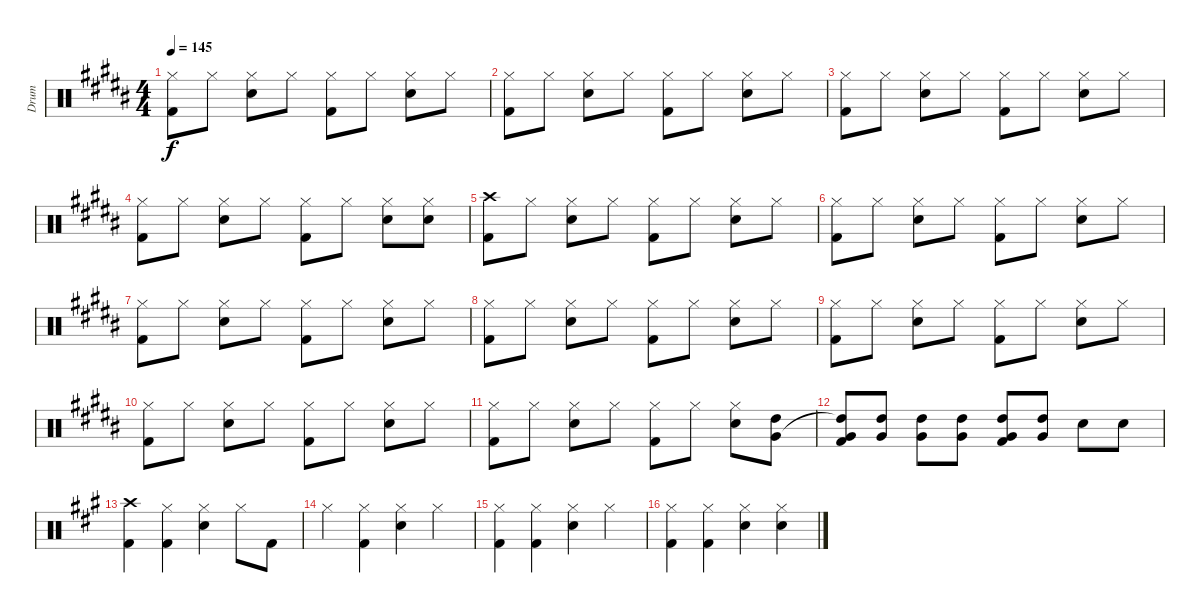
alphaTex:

\track ("Drum" "Drum") {instrument percussion}
\staff {score}
\articulation defaults
\ts (4 4)
\tempo 145
\clef neutral
\ks b
("Hi-Hat (closed)" "Kick (hit) 2").8{dy f} "Hi-Hat (closed)".8 ("Hi-Hat (closed)" "Electric Snare (hit)").8 "Hi-Hat (closed)".8 ("Hi-Hat (closed)" "Kick (hit) 2").8 "Hi-Hat (closed)".8 ("Hi-Hat (closed)" "Electric Snare (hit)").8 "Hi-Hat (closed)".8 |
("Hi-Hat (closed)" "Kick (hit) 2").8 "Hi-Hat (closed)".8 ("Hi-Hat (closed)" "Electric Snare (hit)").8 "Hi-Hat (closed)".8 ("Hi-Hat (closed)" "Kick (hit) 2").8 "Hi-Hat (closed)".8 ("Hi-Hat (closed)" "Electric Snare (hit)").8 "Hi-Hat (closed)".8 |
("Hi-Hat (closed)" "Kick (hit) 2").8 "Hi-Hat (closed)".8 ("Hi-Hat (closed)" "Electric Snare (hit)").8 "Hi-Hat (closed)".8 ("Hi-Hat (closed)" "Kick (hit) 2").8 "Hi-Hat (closed)".8 ("Hi-Hat (closed)" "Electric Snare (hit)").8 "Hi-Hat (closed)".8 |
("Hi-Hat (closed)" "Kick (hit) 2").8 "Hi-Hat (closed)".8 ("Hi-Hat (closed)" "Electric Snare (hit)").8 "Hi-Hat (closed)".8 ("Hi-Hat (closed)" "Kick (hit) 2").8 "Hi-Hat (closed)".8 ("Hi-Hat (closed)" "Electric Snare (hit)").8 ("Hi-Hat (closed)" "Electric Snare (hit)").8 |
("Kick (hit) 2" "Crash high (hit)").8 "Hi-Hat (closed)".8 ("Hi-Hat (closed)" "Electric Snare (hit)").8 "Hi-Hat (closed)".8 ("Hi-Hat (closed)" "Kick (hit) 2").8 "Hi-Hat (closed)".8 ("Hi-Hat (closed)" "Electric Snare (hit)").8 "Hi-Hat (closed)".8 |
("Hi-Hat (closed)" "Kick (hit) 2").8 "Hi-Hat (closed)".8 ("Hi-Hat (closed)" "Electric Snare (hit)").8 "Hi-Hat (closed)".8 ("Hi-Hat (closed)" "Kick (hit) 2").8 "Hi-Hat (closed)".8 ("Hi-Hat (closed)" "Electric Snare (hit)").8 "Hi-Hat (closed)".8 |
("Hi-Hat (closed)" "Kick (hit) 2").8 "Hi-Hat (closed)".8 ("Hi-Hat (closed)" "Electric Snare (hit)").8 "Hi-Hat (closed)".8 ("Hi-Hat (closed)" "Kick (hit) 2").8 "Hi-Hat (closed)".8 ("Hi-Hat (closed)" "Electric Snare (hit)").8 "Hi-Hat (closed)".8 |
("Hi-Hat (closed)" "Kick (hit) 2").8 "Hi-Hat (closed)".8 ("Hi-Hat (closed)" "Electric Snare (hit)").8 "Hi-Hat (closed)".8 ("Hi-Hat (closed)" "Kick (hit) 2").8 "Hi-Hat (closed)".8 ("Hi-Hat (closed)" "Electric Snare (hit)").8 "Hi-Hat (closed)".8 |
("Hi-Hat (closed)" "Kick (hit) 2").8 "Hi-Hat (closed)".8 ("Hi-Hat (closed)" "Electric Snare (hit)").8 "Hi-Hat (closed)".8 ("Hi-Hat (closed)" "Kick (hit) 2").8 "Hi-Hat (closed)".8 ("Hi-Hat (closed)" "Electric Snare (hit)").8 "Hi-Hat (closed)".8 |
("Hi-Hat (closed)" "Kick (hit) 2").8 "Hi-Hat (closed)".8 ("Hi-Hat (closed)" "Electric Snare (hit)").8 "Hi-Hat (closed)".8 ("Hi-Hat (closed)" "Kick (hit) 2").8 "Hi-Hat (closed)".8 ("Hi-Hat (closed)" "Electric Snare (hit)").8 "Hi-Hat (closed)".8 |
("Hi-Hat (closed)" "Kick (hit) 2").8 "Hi-Hat (closed)".8 ("Hi-Hat (closed)" "Electric Snare (hit)").8 "Hi-Hat (closed)".8 ("Hi-Hat (closed)" "Kick (hit) 2").8 "Hi-Hat (closed)".8 ("Hi-Hat (closed)" "Electric Snare (hit)").8 ("High Tom (hit)" "Very Low Tom (hit)").8 |
("Kick (hit) 2" "High Tom (hit)"{t} "Very Low Tom (hit)").8 ("High Tom (hit)" "Very Low Tom (hit)").8 ("High Tom (hit)" "Very Low Tom (hit)").8 ("High Tom (hit)" "Very Low Tom (hit)").8 ("Kick (hit) 2" "High Tom (hit)" "Very Low Tom (hit)").8 ("High Tom (hit)" "Very Low Tom (hit)").8 "Electric Snare (hit)".8 "Electric Snare (hit)".8 |
\ks a
("Kick (hit) 2" "Crash high (hit)").4 ("Hi-Hat (closed)" "Kick (hit) 2").4 ("Hi-Hat (closed)" "Electric Snare (hit)").4 "Hi-Hat (closed)".8 "Kick (hit) 2".8 |
"Hi-Hat (closed)".4 ("Hi-Hat (closed)" "Kick (hit) 2").4 ("Hi-Hat (closed)" "Electric Snare (hit)").4 "Hi-Hat (closed)".4 |
("Hi-Hat (closed)" "Kick (hit) 2").4 ("Hi-Hat (closed)" "Kick (hit) 2").4 ("Hi-Hat (closed)" "Electric Snare (hit)").4 "Hi-Hat (closed)".4 |
("Hi-Hat (closed)" "Kick (hit) 2").4 ("Hi-Hat (closed)" "Kick (hit) 2").4 ("Hi-Hat (closed)" "Electric Snare (hit)").4 ("Hi-Hat (closed)" "Electric Snare (hit)").4
